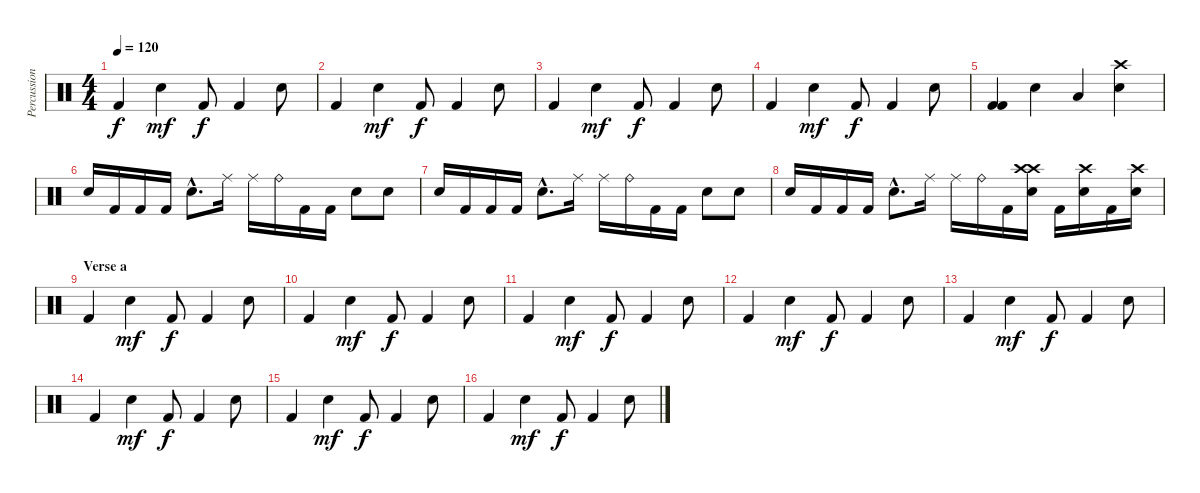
\track ("Percussions" "Percussion") {instrument percussion}
\staff {score}
\articulation defaults
\ts (4 4)
\section ("" "")
\tempo 120
\clef neutral
\ks c "Kick (hit) 2".4{dy f} "Snare (hit) 2".4{dy mf} "Kick (hit) 2".8{dy f} "Kick (hit) 2".4 "Electric Snare (hit)".8
|
"Kick (hit) 2".4 "Snare (hit) 2".4{dy mf} "Kick (hit) 2".8{dy f} "Kick (hit) 2".4 "Electric Snare (hit)".8 |
"Kick (hit) 2".4 "Snare (hit) 2".4{dy mf} "Kick (hit) 2".8{dy f} "Kick (hit) 2".4 "Electric Snare (hit)".8 |
"Kick (hit) 2".4 "Snare (hit) 2".4{dy mf} "Kick (hit) 2".8{dy f} "Kick (hit) 2".4 "Electric Snare (hit)".8 |
("Kick (hit) 2" "Kick (hit) 2").4{bd 240} "Snare (hit) 2"{x}.4 "Low Floor Tom (hit)".4 ("Crash high (hit)" "Electric Snare (hit)").4 |
"Snare (hit) 2".16 "Kick (hit) 2".16 "Kick (hit) 2".16 "Kick (hit) 2".16 "Snare (hit) 2"{hac}.8{d} "Ride (middle)".16 "Ride (middle)".16 "Ride (bell)".16 "Kick (hit) 2".16 "Kick (hit) 2".16 "Snare (hit) 2".8 "Snare (hit) 2".8 |
\section ("" "")
"Snare (hit) 2".16 "Kick (hit) 2".16 "Kick (hit) 2".16 "Kick (hit) 2".16 "Snare (hit) 2"{hac}.8{d} "Ride (middle)".16 "Ride (middle)".16 "Ride (bell)".16 "Kick (hit) 2".16 "Kick (hit) 2".16 "Snare (hit) 2".8 "Snare (hit) 2".8 |
"Snare (hit) 2".16 "Kick (hit) 2".16 "Kick (hit) 2".16 "Kick (hit) 2".16 "Snare (hit) 2"{hac}.8{d} "Ride (middle)".16 "Ride (middle)".16 "Ride (bell)".16 "Kick (hit) 2".16 ("Crash high (hit)" "Crash high (hit)" "Electric Snare (hit)").16 "Kick (hit) 2".16 ("Electric Snare (hit)" "Crash high (hit)").16 "Kick (hit) 2".16 ("Electric Snare (hit)" "Crash high (hit)").16 |
\section ("" "Verse a")
"Kick (hit) 2".4 "Snare (hit) 2".4{dy mf} "Kick (hit) 2".8{dy f} "Kick (hit) 2".4 "Electric Snare (hit)".8 |
"Kick (hit) 2".4 "Snare (hit) 2".4{dy mf} "Kick (hit) 2".8{dy f} "Kick (hit) 2".4 "Electric Snare (hit)".8 |
"Kick (hit) 2".4 "Snare (hit) 2".4{dy mf} "Kick (hit) 2".8{dy f} "Kick (hit) 2".4 "Electric Snare (hit)".8 |
"Kick (hit) 2".4 "Snare (hit) 2".4{dy mf} "Kick (hit) 2".8{dy f} "Kick (hit) 2".4 "Electric Snare (hit)".8 |
"Kick (hit) 2".4 "Snare (hit) 2".4{dy mf} "Kick (hit) 2".8{dy f} "Kick (hit) 2".4 "Electric Snare (hit)".8 |
"Kick (hit) 2".4 "Snare (hit) 2".4{dy mf} "Kick (hit) 2".8{dy f} "Kick (hit) 2".4 "Electric Snare (hit)".8 |
"Kick (hit) 2".4 "Snare (hit) 2".4{dy mf} "Kick (hit) 2".8{dy f} "Kick (hit) 2".4 "Electric Snare (hit)".8 |
"Kick (hit) 2".4 "Snare (hit) 2".4{dy mf} "Kick (hit) 2".8{dy f} "Kick (hit) 2".4 "Electric Snare (hit)".8
